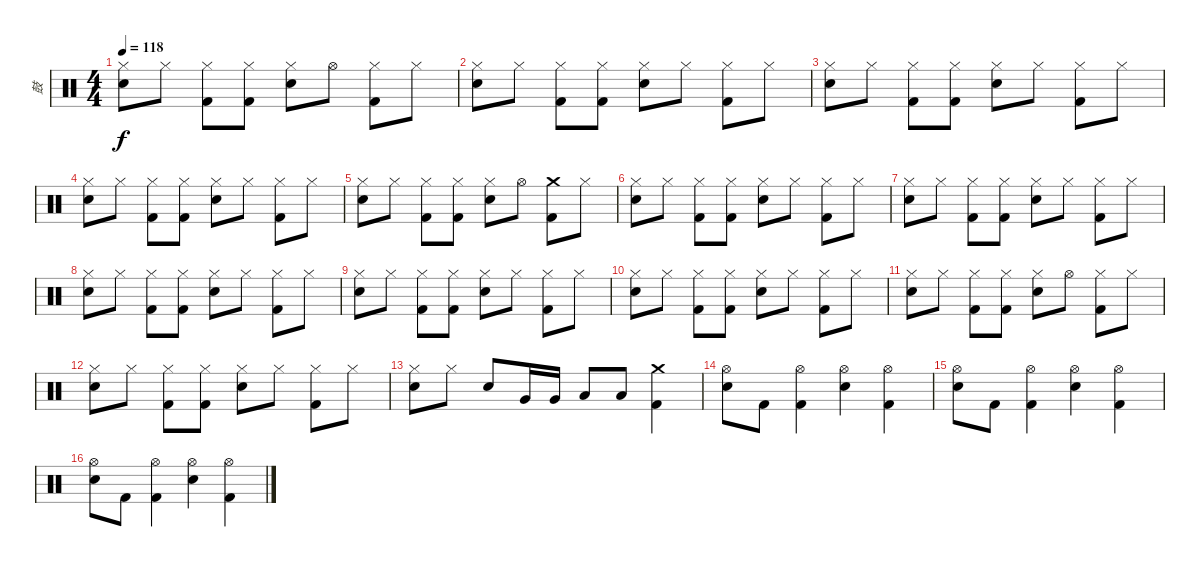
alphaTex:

\track ("鼓" "鼓") {instrument percussion}
\staff {score}
\articulation defaults
\ts (4 4)
\tempo 118
\clef neutral
\ks c
("Hi-Hat (closed)" "Electric Snare (hit)").8{dy f} "Hi-Hat (closed)".8 ("Hi-Hat (closed)" "Kick (hit) 2").8 ("Hi-Hat (closed)" "Kick (hit) 2").8 ("Hi-Hat (closed)" "Electric Snare (hit)").8 "Hi-Hat (open)".8 ("Hi-Hat (closed)" "Kick (hit) 2").8 "Hi-Hat (closed)".8 |
("Hi-Hat (closed)" "Electric Snare (hit)").8 "Hi-Hat (closed)".8 ("Hi-Hat (closed)" "Kick (hit) 2").8 ("Hi-Hat (closed)" "Kick (hit) 2").8 ("Hi-Hat (closed)" "Electric Snare (hit)").8 "Hi-Hat (closed)".8 ("Hi-Hat (closed)" "Kick (hit) 2").8 "Hi-Hat (closed)".8 |
("Hi-Hat (closed)" "Electric Snare (hit)").8 "Hi-Hat (closed)".8 ("Hi-Hat (closed)" "Kick (hit) 2").8 ("Hi-Hat (closed)" "Kick (hit) 2").8 ("Hi-Hat (closed)" "Electric Snare (hit)").8 "Hi-Hat (closed)".8 ("Hi-Hat (closed)" "Kick (hit) 2").8 "Hi-Hat (closed)".8 |
("Hi-Hat (closed)" "Electric Snare (hit)").8 "Hi-Hat (closed)".8 ("Hi-Hat (closed)" "Kick (hit) 2").8 ("Hi-Hat (closed)" "Kick (hit) 2").8 ("Hi-Hat (closed)" "Electric Snare (hit)").8 "Hi-Hat (closed)".8 ("Hi-Hat (closed)" "Kick (hit) 2").8 "Hi-Hat (closed)".8 |
("Hi-Hat (closed)" "Electric Snare (hit)").8 "Hi-Hat (closed)".8 ("Hi-Hat (closed)" "Kick (hit) 2").8 ("Hi-Hat (closed)" "Kick (hit) 2").8 ("Hi-Hat (closed)" "Electric Snare (hit)").8 "Hi-Hat (open)".8 ("Crash medium (hit)" "Kick (hit) 2").8 "Hi-Hat (closed)".8 |
("Hi-Hat (closed)" "Electric Snare (hit)").8 "Hi-Hat (closed)".8 ("Hi-Hat (closed)" "Kick (hit) 2").8 ("Hi-Hat (closed)" "Kick (hit) 2").8 ("Hi-Hat (closed)" "Electric Snare (hit)").8 "Hi-Hat (closed)".8 ("Hi-Hat (closed)" "Kick (hit) 2").8 "Hi-Hat (closed)".8 |
("Hi-Hat (closed)" "Electric Snare (hit)").8 "Hi-Hat (closed)".8 ("Hi-Hat (closed)" "Kick (hit) 2").8 ("Hi-Hat (closed)" "Kick (hit) 2").8 ("Hi-Hat (closed)" "Electric Snare (hit)").8 "Hi-Hat (closed)".8 ("Hi-Hat (closed)" "Kick (hit) 2").8 "Hi-Hat (closed)".8 |
("Hi-Hat (closed)" "Electric Snare (hit)").8 "Hi-Hat (closed)".8 ("Hi-Hat (closed)" "Kick (hit) 2").8 ("Hi-Hat (closed)" "Kick (hit) 2").8 ("Hi-Hat (closed)" "Electric Snare (hit)").8 "Hi-Hat (closed)".8 ("Hi-Hat (closed)" "Kick (hit) 2").8 "Hi-Hat (closed)".8 |
("Hi-Hat (closed)" "Electric Snare (hit)").8 "Hi-Hat (closed)".8 ("Hi-Hat (closed)" "Kick (hit) 2").8 ("Hi-Hat (closed)" "Kick (hit) 2").8 ("Hi-Hat (closed)" "Electric Snare (hit)").8 "Hi-Hat (closed)".8 ("Hi-Hat (closed)" "Kick (hit) 2").8 "Hi-Hat (closed)".8 |
("Hi-Hat (closed)" "Electric Snare (hit)").8 "Hi-Hat (closed)".8 ("Hi-Hat (closed)" "Kick (hit) 2").8 ("Hi-Hat (closed)" "Kick (hit) 2").8 ("Hi-Hat (closed)" "Electric Snare (hit)").8 "Hi-Hat (closed)".8 ("Hi-Hat (closed)" "Kick (hit) 2").8 "Hi-Hat (closed)".8 |
("Hi-Hat (closed)" "Electric Snare (hit)").8 "Hi-Hat (closed)".8 ("Hi-Hat (closed)" "Kick (hit) 2").8 ("Hi-Hat (closed)" "Kick (hit) 2").8 ("Hi-Hat (closed)" "Electric Snare (hit)").8 "Hi-Hat (open)".8 ("Hi-Hat (closed)" "Kick (hit) 2").8 "Hi-Hat (closed)".8 |
("Hi-Hat (closed)" "Electric Snare (hit)").8 "Hi-Hat (closed)".8 ("Hi-Hat (closed)" "Kick (hit) 2").8 ("Hi-Hat (closed)" "Kick (hit) 2").8 ("Hi-Hat (closed)" "Electric Snare (hit)").8 "Hi-Hat (closed)".8 ("Hi-Hat (closed)" "Kick (hit) 2").8 "Hi-Hat (closed)".8 |
("Hi-Hat (closed)" "Electric Snare (hit)").8 "Hi-Hat (closed)".8 "Electric Snare (hit)".8 "Very Low Tom (hit)".16 "Very Low Tom (hit)".16 "Low Tom (hit)".8 "Low Tom (hit)".8 ("Crash medium (hit)" "Kick (hit) 2").4 |
("Hi-Hat (open)" "Electric Snare (hit)").8 "Kick (hit) 2".8 ("Hi-Hat (open)" "Kick (hit) 2").4 ("Hi-Hat (open)" "Electric Snare (hit)").4 ("Hi-Hat (open)" "Kick (hit) 2").4 |
("Hi-Hat (open)" "Electric Snare (hit)").8 "Kick (hit) 2".8 ("Hi-Hat (open)" "Kick (hit) 2").4 ("Hi-Hat (open)" "Electric Snare (hit)").4 ("Hi-Hat (open)" "Kick (hit) 2").4 |
("Hi-Hat (open)" "Electric Snare (hit)").8 "Kick (hit) 2".8 ("Hi-Hat (open)" "Kick (hit) 2").4 ("Hi-Hat (open)" "Electric Snare (hit)").4 ("Hi-Hat (open)" "Kick (hit) 2").4
